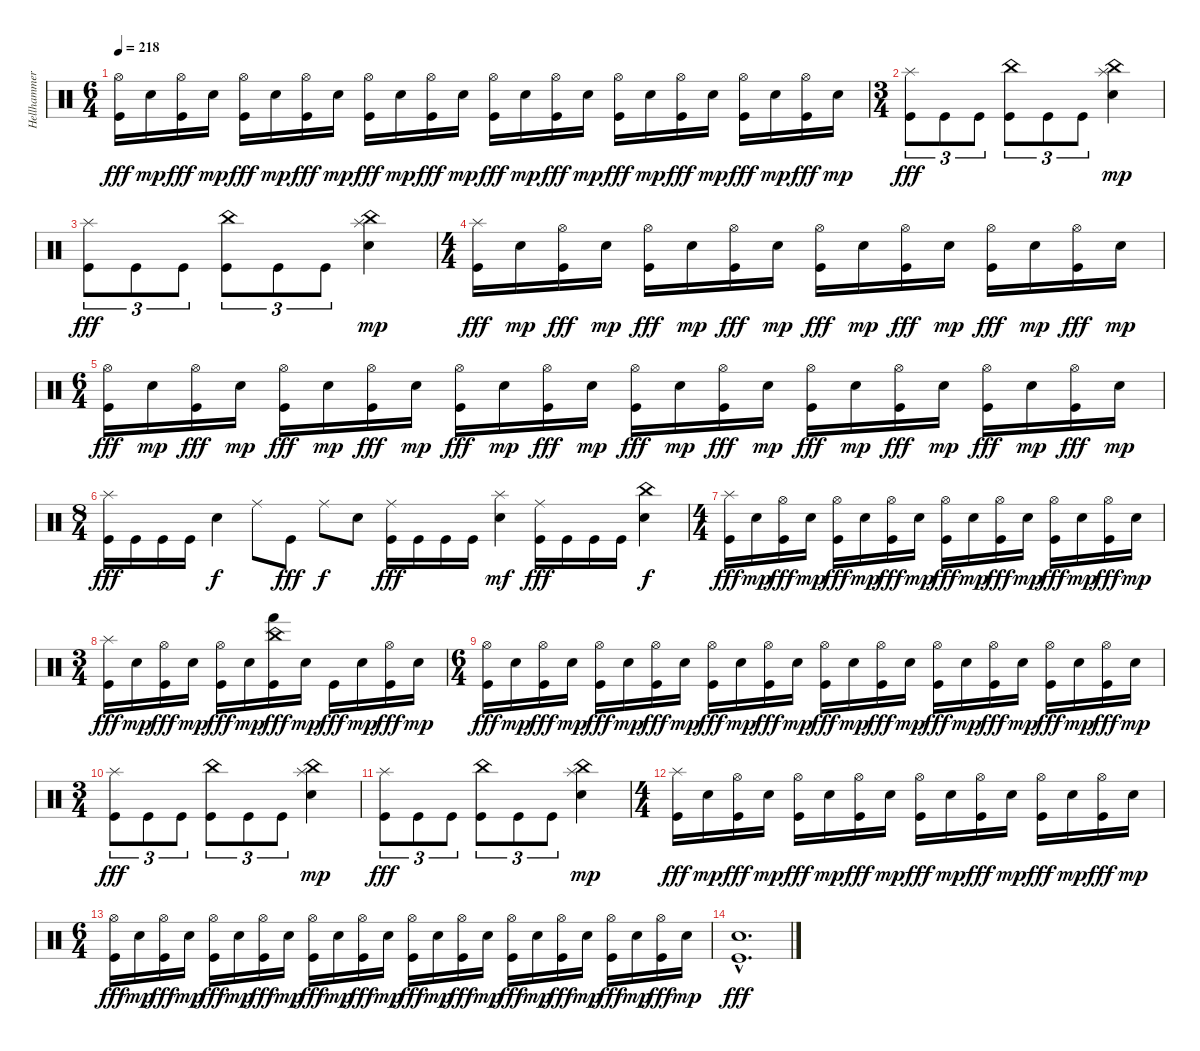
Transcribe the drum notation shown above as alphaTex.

\track ("Hellhammer" "Hellhammer") {instrument percussion}
\staff {score}
\articulation defaults
\ts (6 4)
\tempo 218
\clef neutral
\ks c
("Hi-Hat (open)" "Kick (hit)").16{dy fff} "Electric Snare (hit)".16{dy mp} ("Hi-Hat (open)" "Kick (hit)").16{dy fff} "Electric Snare (hit)".16{dy mp} ("Hi-Hat (open)" "Kick (hit)").16{dy fff} "Electric Snare (hit)".16{dy mp} ("Hi-Hat (open)" "Kick (hit)").16{dy fff} "Electric Snare (hit)".16{dy mp} ("Hi-Hat (open)" "Kick (hit)").16{dy fff} "Electric Snare (hit)".16{dy mp} ("Hi-Hat (open)" "Kick (hit)").16{dy fff} "Electric Snare (hit)".16{dy mp} ("Hi-Hat (open)" "Kick (hit)").16{dy fff} "Electric Snare (hit)".16{dy mp} ("Hi-Hat (open)" "Kick (hit)").16{dy fff} "Electric Snare (hit)".16{dy mp} ("Hi-Hat (open)" "Kick (hit)").16{dy fff} "Electric Snare (hit)".16{dy mp} ("Hi-Hat (open)" "Kick (hit)").16{dy fff} "Electric Snare (hit)".16{dy mp} ("Hi-Hat (open)" "Kick (hit)").16{dy fff} "Electric Snare (hit)".16{dy mp} ("Hi-Hat (open)" "Kick (hit)").16{dy fff} "Electric Snare (hit)".16{dy mp} |
\ts (3 4)
("Splash (hit)" "Kick (hit)").8{tu (3 2) dy fff} "Kick (hit)".8{tu (3 2)} "Kick (hit)".8{tu (3 2)} ("China (hit)" "Kick (hit)").8{tu (3 2)} "Kick (hit)".8{tu (3 2)} "Kick (hit)".8{tu (3 2)} ("Splash (hit)" "China (hit)" "Electric Snare (hit)").4{dy mp} |
("Splash (hit)" "Kick (hit)").8{tu (3 2) dy fff} "Kick (hit)".8{tu (3 2)} "Kick (hit)".8{tu (3 2)} ("China (hit)" "Kick (hit)").8{tu (3 2)} "Kick (hit)".8{tu (3 2)} "Kick (hit)".8{tu (3 2)} ("Splash (hit)" "China (hit)" "Electric Snare (hit)").4{dy mp} |
\ts (4 4)
("Splash (hit)" "Kick (hit)").16{dy fff} "Electric Snare (hit)".16{dy mp} ("Hi-Hat (open)" "Kick (hit)").16{dy fff} "Electric Snare (hit)".16{dy mp} ("Hi-Hat (open)" "Kick (hit)").16{dy fff} "Electric Snare (hit)".16{dy mp} ("Hi-Hat (open)" "Kick (hit)").16{dy fff} "Electric Snare (hit)".16{dy mp} ("Hi-Hat (open)" "Kick (hit)").16{dy fff} "Electric Snare (hit)".16{dy mp} ("Hi-Hat (open)" "Kick (hit)").16{dy fff} "Electric Snare (hit)".16{dy mp} ("Hi-Hat (open)" "Kick (hit)").16{dy fff} "Electric Snare (hit)".16{dy mp} ("Hi-Hat (open)" "Kick (hit)").16{dy fff} "Electric Snare (hit)".16{dy mp} |
\ts (6 4)
("Hi-Hat (open)" "Kick (hit)").16{dy fff} "Electric Snare (hit)".16{dy mp} ("Hi-Hat (open)" "Kick (hit)").16{dy fff} "Electric Snare (hit)".16{dy mp} ("Hi-Hat (open)" "Kick (hit)").16{dy fff} "Electric Snare (hit)".16{dy mp} ("Hi-Hat (open)" "Kick (hit)").16{dy fff} "Electric Snare (hit)".16{dy mp} ("Hi-Hat (open)" "Kick (hit)").16{dy fff} "Electric Snare (hit)".16{dy mp} ("Hi-Hat (open)" "Kick (hit)").16{dy fff} "Electric Snare (hit)".16{dy mp} ("Hi-Hat (open)" "Kick (hit)").16{dy fff} "Electric Snare (hit)".16{dy mp} ("Hi-Hat (open)" "Kick (hit)").16{dy fff} "Electric Snare (hit)".16{dy mp} ("Hi-Hat (open)" "Kick (hit)").16{dy fff} "Electric Snare (hit)".16{dy mp} ("Hi-Hat (open)" "Kick (hit)").16{dy fff} "Electric Snare (hit)".16{dy mp} ("Hi-Hat (open)" "Kick (hit)").16{dy fff} "Electric Snare (hit)".16{dy mp} ("Hi-Hat (open)" "Kick (hit)").16{dy fff} "Electric Snare (hit)".16{dy mp} |
\ts (8 4)
("Splash (hit)" "Kick (hit)").16{dy fff} "Kick (hit)".16 "Kick (hit)".16 "Kick (hit)".16 "Electric Snare (hit)".4{dy f} "Ride (middle)".8 "Kick (hit)".8{dy fff} "Ride (middle)".8{dy f} "Electric Snare (hit)".8 ("Ride (middle)" "Kick (hit)").16{dy fff} "Kick (hit)".16 "Kick (hit)".16 "Kick (hit)".16 ("Splash (hit)" "Electric Snare (hit)").4{dy mf} ("Ride (middle)" "Kick (hit)").16{dy fff} "Kick (hit)".16 "Kick (hit)".16 "Kick (hit)".16 ("China (hit)" "Electric Snare (hit)").4{dy f} |
\ts (4 4)
("Splash (hit)" "Kick (hit)").16{dy fff} "Electric Snare (hit)".16{dy mp} ("Hi-Hat (open)" "Kick (hit)").16{dy fff} "Electric Snare (hit)".16{dy mp} ("Hi-Hat (open)" "Kick (hit)").16{dy fff} "Electric Snare (hit)".16{dy mp} ("Hi-Hat (open)" "Kick (hit)").16{dy fff} "Electric Snare (hit)".16{dy mp} ("Hi-Hat (open)" "Kick (hit)").16{dy fff} "Electric Snare (hit)".16{dy mp} ("Hi-Hat (open)" "Kick (hit)").16{dy fff} "Electric Snare (hit)".16{dy mp} ("Hi-Hat (open)" "Kick (hit)").16{dy fff} "Electric Snare (hit)".16{dy mp} ("Hi-Hat (open)" "Kick (hit)").16{dy fff} "Electric Snare (hit)".16{dy mp} |
\ts (3 4)
("Splash (hit)" "Kick (hit)").16{dy fff} "Electric Snare (hit)".16{dy mp} ("Hi-Hat (open)" "Kick (hit)").16{dy fff} "Electric Snare (hit)".16{dy mp} ("Hi-Hat (open)" "Kick (hit)").16{dy fff} "Electric Snare (hit)".16{dy mp} ("China (hit)" "Hand (hit)" "Kick (hit)").16{dy fff} "Electric Snare (hit)".16{dy mp} "Kick (hit)".16{dy fff} "Electric Snare (hit)".16{dy mp} ("Hi-Hat (open)" "Kick (hit)").16{dy fff} "Electric Snare (hit)".16{dy mp} |
\ts (6 4)
("Hi-Hat (open)" "Kick (hit)").16{dy fff} "Electric Snare (hit)".16{dy mp} ("Hi-Hat (open)" "Kick (hit)").16{dy fff} "Electric Snare (hit)".16{dy mp} ("Hi-Hat (open)" "Kick (hit)").16{dy fff} "Electric Snare (hit)".16{dy mp} ("Hi-Hat (open)" "Kick (hit)").16{dy fff} "Electric Snare (hit)".16{dy mp} ("Hi-Hat (open)" "Kick (hit)").16{dy fff} "Electric Snare (hit)".16{dy mp} ("Hi-Hat (open)" "Kick (hit)").16{dy fff} "Electric Snare (hit)".16{dy mp} ("Hi-Hat (open)" "Kick (hit)").16{dy fff} "Electric Snare (hit)".16{dy mp} ("Hi-Hat (open)" "Kick (hit)").16{dy fff} "Electric Snare (hit)".16{dy mp} ("Hi-Hat (open)" "Kick (hit)").16{dy fff} "Electric Snare (hit)".16{dy mp} ("Hi-Hat (open)" "Kick (hit)").16{dy fff} "Electric Snare (hit)".16{dy mp} ("Hi-Hat (open)" "Kick (hit)").16{dy fff} "Electric Snare (hit)".16{dy mp} ("Hi-Hat (open)" "Kick (hit)").16{dy fff} "Electric Snare (hit)".16{dy mp} |
\ts (3 4)
("Splash (hit)" "Kick (hit)").8{tu (3 2) dy fff} "Kick (hit)".8{tu (3 2)} "Kick (hit)".8{tu (3 2)} ("China (hit)" "Kick (hit)").8{tu (3 2)} "Kick (hit)".8{tu (3 2)} "Kick (hit)".8{tu (3 2)} ("Splash (hit)" "China (hit)" "Electric Snare (hit)").4{dy mp} |
("Splash (hit)" "Kick (hit)").8{tu (3 2) dy fff} "Kick (hit)".8{tu (3 2)} "Kick (hit)".8{tu (3 2)} ("China (hit)" "Kick (hit)").8{tu (3 2)} "Kick (hit)".8{tu (3 2)} "Kick (hit)".8{tu (3 2)} ("Splash (hit)" "China (hit)" "Electric Snare (hit)").4{dy mp} |
\ts (4 4)
("Splash (hit)" "Kick (hit)").16{dy fff} "Electric Snare (hit)".16{dy mp} ("Hi-Hat (open)" "Kick (hit)").16{dy fff} "Electric Snare (hit)".16{dy mp} ("Hi-Hat (open)" "Kick (hit)").16{dy fff} "Electric Snare (hit)".16{dy mp} ("Hi-Hat (open)" "Kick (hit)").16{dy fff} "Electric Snare (hit)".16{dy mp} ("Hi-Hat (open)" "Kick (hit)").16{dy fff} "Electric Snare (hit)".16{dy mp} ("Hi-Hat (open)" "Kick (hit)").16{dy fff} "Electric Snare (hit)".16{dy mp} ("Hi-Hat (open)" "Kick (hit)").16{dy fff} "Electric Snare (hit)".16{dy mp} ("Hi-Hat (open)" "Kick (hit)").16{dy fff} "Electric Snare (hit)".16{dy mp} |
\ts (6 4)
("Hi-Hat (open)" "Kick (hit)").16{dy fff} "Electric Snare (hit)".16{dy mp} ("Hi-Hat (open)" "Kick (hit)").16{dy fff} "Electric Snare (hit)".16{dy mp} ("Hi-Hat (open)" "Kick (hit)").16{dy fff} "Electric Snare (hit)".16{dy mp} ("Hi-Hat (open)" "Kick (hit)").16{dy fff} "Electric Snare (hit)".16{dy mp} ("Hi-Hat (open)" "Kick (hit)").16{dy fff} "Electric Snare (hit)".16{dy mp} ("Hi-Hat (open)" "Kick (hit)").16{dy fff} "Electric Snare (hit)".16{dy mp} ("Hi-Hat (open)" "Kick (hit)").16{dy fff} "Electric Snare (hit)".16{dy mp} ("Hi-Hat (open)" "Kick (hit)").16{dy fff} "Electric Snare (hit)".16{dy mp} ("Hi-Hat (open)" "Kick (hit)").16{dy fff} "Electric Snare (hit)".16{dy mp} ("Hi-Hat (open)" "Kick (hit)").16{dy fff} "Electric Snare (hit)".16{dy mp} ("Hi-Hat (open)" "Kick (hit)").16{dy fff} "Electric Snare (hit)".16{dy mp} ("Hi-Hat (open)" "Kick (hit)").16{dy fff} "Electric Snare (hit)".16{dy mp} |
("Electric Snare (hit)"{hac} "Kick (hit)"{hac}).1{d dy fff}
